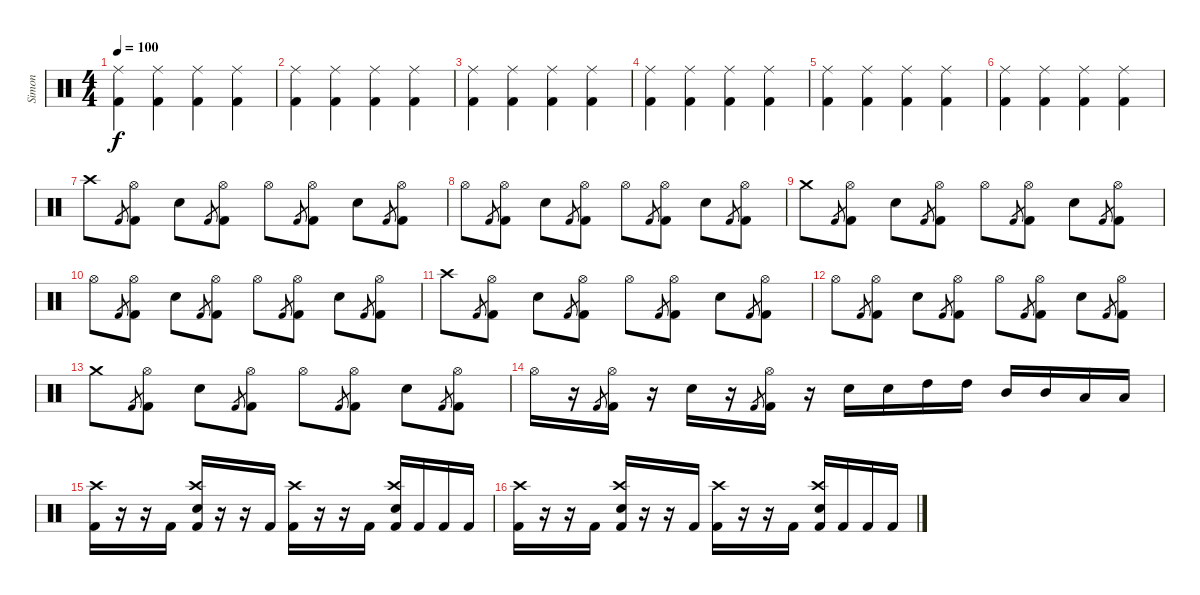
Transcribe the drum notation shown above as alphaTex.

\track ("Simon" "Simon") {instrument percussion}
\staff {score}
\articulation defaults
\ts (4 4)
\tempo 100
\clef neutral
\ks c
("Ride (middle)" "Kick (hit) 2").4{dy f} ("Ride (middle)" "Kick (hit) 2").4 ("Ride (middle)" "Kick (hit) 2").4 ("Ride (middle)" "Kick (hit) 2").4 |
("Ride (middle)" "Kick (hit) 2").4 ("Ride (middle)" "Kick (hit) 2").4 ("Ride (middle)" "Kick (hit) 2").4 ("Ride (middle)" "Kick (hit) 2").4 |
("Ride (middle)" "Kick (hit) 2").4 ("Ride (middle)" "Kick (hit) 2").4 ("Ride (middle)" "Kick (hit) 2").4 ("Ride (middle)" "Kick (hit) 2").4 |
("Ride (middle)" "Kick (hit) 2").4 ("Ride (middle)" "Kick (hit) 2").4 ("Ride (middle)" "Kick (hit) 2").4 ("Ride (middle)" "Kick (hit) 2").4 |
("Ride (middle)" "Kick (hit) 2").4 ("Ride (middle)" "Kick (hit) 2").4 ("Ride (middle)" "Kick (hit) 2").4 ("Ride (middle)" "Kick (hit) 2").4 |
("Ride (middle)" "Kick (hit) 2").4 ("Ride (middle)" "Kick (hit) 2").4 ("Ride (middle)" "Kick (hit) 2").4 ("Ride (middle)" "Kick (hit) 2").4 |
"Crash high (hit)".8 "Kick (hit) 2".8{gr} ("Hi-Hat (open)" "Kick (hit) 2").8 "Snare (hit) 2".8 "Kick (hit) 2".8{gr} ("Hi-Hat (open)" "Kick (hit) 2").8 "Hi-Hat (open)".8 "Kick (hit) 2".8{gr} ("Hi-Hat (open)" "Kick (hit) 2").8 "Snare (hit) 2".8 "Kick (hit) 2".8{gr} ("Hi-Hat (open)" "Kick (hit) 2").8 |
"Hi-Hat (open)".8 "Kick (hit) 2".8{gr} ("Hi-Hat (open)" "Kick (hit) 2").8 "Snare (hit) 2".8 "Kick (hit) 2".8{gr} ("Hi-Hat (open)" "Kick (hit) 2").8 "Hi-Hat (open)".8 "Kick (hit) 2".8{gr} ("Hi-Hat (open)" "Kick (hit) 2").8 "Snare (hit) 2".8 "Kick (hit) 2".8{gr} ("Hi-Hat (open)" "Kick (hit) 2").8 |
"Crash medium (hit)".8 "Kick (hit) 2".8{gr} ("Hi-Hat (open)" "Kick (hit) 2").8 "Snare (hit) 2".8 "Kick (hit) 2".8{gr} ("Hi-Hat (open)" "Kick (hit) 2").8 "Hi-Hat (open)".8 "Kick (hit) 2".8{gr} ("Hi-Hat (open)" "Kick (hit) 2").8 "Snare (hit) 2".8 "Kick (hit) 2".8{gr} ("Hi-Hat (open)" "Kick (hit) 2").8 |
"Hi-Hat (open)".8 "Kick (hit) 2".8{gr} ("Hi-Hat (open)" "Kick (hit) 2").8 "Snare (hit) 2".8 "Kick (hit) 2".8{gr} ("Hi-Hat (open)" "Kick (hit) 2").8 "Hi-Hat (open)".8 "Kick (hit) 2".8{gr} ("Hi-Hat (open)" "Kick (hit) 2").8 "Snare (hit) 2".8 "Kick (hit) 2".8{gr} ("Hi-Hat (open)" "Kick (hit) 2").8 |
"Crash high (hit)".8 "Kick (hit) 2".8{gr} ("Hi-Hat (open)" "Kick (hit) 2").8 "Snare (hit) 2".8 "Kick (hit) 2".8{gr} ("Hi-Hat (open)" "Kick (hit) 2").8 "Hi-Hat (open)".8 "Kick (hit) 2".8{gr} ("Hi-Hat (open)" "Kick (hit) 2").8 "Snare (hit) 2".8 "Kick (hit) 2".8{gr} ("Hi-Hat (open)" "Kick (hit) 2").8 |
"Hi-Hat (open)".8 "Kick (hit) 2".8{gr} ("Hi-Hat (open)" "Kick (hit) 2").8 "Snare (hit) 2".8 "Kick (hit) 2".8{gr} ("Hi-Hat (open)" "Kick (hit) 2").8 "Hi-Hat (open)".8 "Kick (hit) 2".8{gr} ("Hi-Hat (open)" "Kick (hit) 2").8 "Snare (hit) 2".8 "Kick (hit) 2".8{gr} ("Hi-Hat (open)" "Kick (hit) 2").8 |
"Crash medium (hit)".8 "Kick (hit) 2".8{gr} ("Hi-Hat (open)" "Kick (hit) 2").8 "Snare (hit) 2".8 "Kick (hit) 2".8{gr} ("Hi-Hat (open)" "Kick (hit) 2").8 "Hi-Hat (open)".8 "Kick (hit) 2".8{gr} ("Hi-Hat (open)" "Kick (hit) 2").8 "Snare (hit) 2".8 "Kick (hit) 2".8{gr} ("Hi-Hat (open)" "Kick (hit) 2").8 |
"Hi-Hat (open)".16 r.16 "Kick (hit) 2".8{gr} ("Hi-Hat (open)" "Kick (hit) 2").16 r.16 "Snare (hit) 2".16 r.16 "Kick (hit) 2".8{gr} ("Hi-Hat (open)" "Kick (hit) 2").16 r.16 "Snare (hit) 2".16 "Snare (hit) 2".16 "High Tom (hit)".16 "High Tom (hit)".16 "Mid Tom (hit)".16 "Mid Tom (hit)".16 "Low Tom (hit)".16 "Low Tom (hit)".16 |
("Crash high (hit)" "Kick (hit) 2").16 r.16 r.16 "Kick (hit) 2".16 ("Crash high (hit)" "Snare (hit) 2" "Kick (hit) 2").16 r.16 r.16 "Kick (hit) 2".16 ("Crash high (hit)" "Kick (hit) 2").16 r.16 r.16 "Kick (hit) 2".16 ("Crash high (hit)" "Snare (hit) 2" "Kick (hit) 2").16 "Kick (hit) 2".16 "Kick (hit) 2".16 "Kick (hit) 2".16 |
("Crash high (hit)" "Kick (hit) 2").16 r.16 r.16 "Kick (hit) 2".16 ("Crash high (hit)" "Snare (hit) 2" "Kick (hit) 2").16 r.16 r.16 "Kick (hit) 2".16 ("Crash high (hit)" "Kick (hit) 2").16 r.16 r.16 "Kick (hit) 2".16 ("Crash high (hit)" "Snare (hit) 2" "Kick (hit) 2").16 "Kick (hit) 2".16 "Kick (hit) 2".16 "Kick (hit) 2".16
